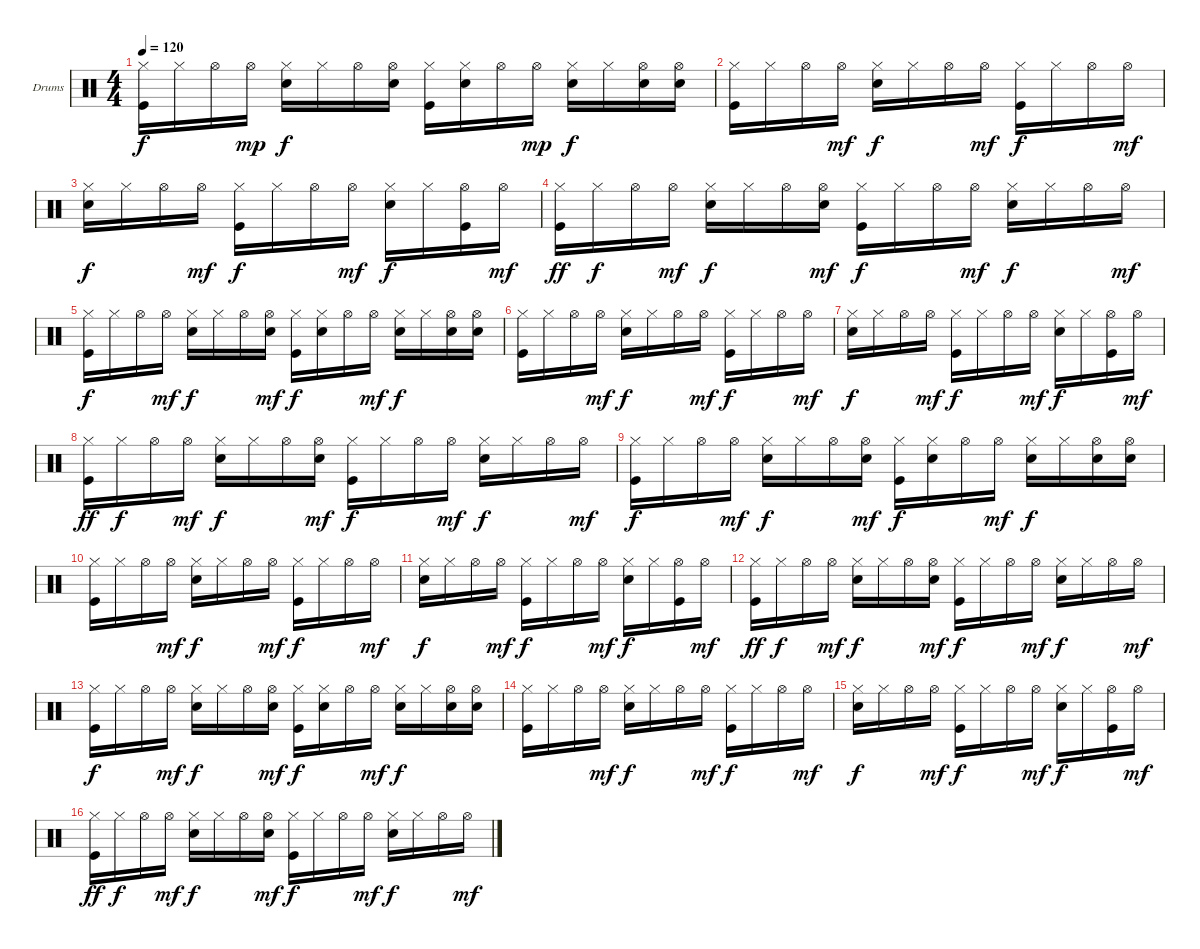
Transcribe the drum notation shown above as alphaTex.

\defaultSystemsLayout 4
\bracketExtendMode groupsimilarinstruments
\firstSystemTrackNameOrientation horizontal
\otherSystemsTrackNameOrientation horizontal
\track ("Г.Гурьянов-Ударные" "Drums") {instrument percussion}
\staff {score}
\articulation defaults
\ts (4 4)
\tempo 120
\clef neutral
\ks c
("Hi-Hat (closed)" "Kick (hit)").16{dy f} "Hi-Hat (closed)".16 "Hi-Hat (open)".16 "Hi-Hat (open)".16{dy mp} ("Hi-Hat (closed)" "Snare (hit) 2").16{dy f} "Hi-Hat (closed)".16 "Hi-Hat (open)".16 ("Snare (hit) 2" "Hi-Hat (open)").16 ("Kick (hit)" "Hi-Hat (closed)").16 ("Snare (hit) 2" "Hi-Hat (closed)").16 "Hi-Hat (open)".16 "Hi-Hat (open)".16{dy mp} ("Hi-Hat (closed)" "Snare (hit) 2").16{dy f} "Hi-Hat (closed)".16 ("Snare (hit) 2" "Hi-Hat (open)").16 ("Snare (hit) 2" "Hi-Hat (open)").16 |
("Hi-Hat (closed)" "Kick (hit)").16 "Hi-Hat (closed)".16 "Hi-Hat (open)".16 "Hi-Hat (open)".16{dy mf} ("Snare (hit) 2" "Hi-Hat (closed)").16{dy f} "Hi-Hat (closed)".16 "Hi-Hat (open)".16 "Hi-Hat (open)".16{dy mf} ("Kick (hit)" "Hi-Hat (closed)").16{dy f} "Hi-Hat (closed)".16 "Hi-Hat (open)".16 "Hi-Hat (open)".16{dy mf} |
("Snare (hit) 2" "Hi-Hat (closed)").16{dy f} "Hi-Hat (closed)".16 "Hi-Hat (open)".16 "Hi-Hat (open)".16{dy mf} ("Kick (hit)" "Hi-Hat (closed)").16{dy f} "Hi-Hat (closed)".16 "Hi-Hat (open)".16 "Hi-Hat (open)".16{dy mf} ("Snare (hit) 2" "Hi-Hat (closed)").16{dy f} "Hi-Hat (closed)".16 ("Kick (hit)" "Hi-Hat (open)").16 "Hi-Hat (open)".16{dy mf} |
("Kick (hit)" "Hi-Hat (closed)").16{dy ff} "Hi-Hat (closed)".16{dy f} "Hi-Hat (open)".16 "Hi-Hat (open)".16{dy mf} ("Snare (hit) 2" "Hi-Hat (closed)").16{dy f} "Hi-Hat (closed)".16 "Hi-Hat (open)".16 ("Hi-Hat (open)" "Snare (hit) 2").16{dy mf} ("Hi-Hat (closed)" "Kick (hit)").16{dy f} "Hi-Hat (closed)".16 "Hi-Hat (open)".16 "Hi-Hat (open)".16{dy mf} ("Snare (hit) 2" "Hi-Hat (closed)").16{dy f} "Hi-Hat (closed)".16 "Hi-Hat (open)".16 "Hi-Hat (open)".16{dy mf} |
("Kick (hit)" "Hi-Hat (closed)").16{dy f} "Hi-Hat (closed)".16 "Hi-Hat (open)".16 "Hi-Hat (open)".16{dy mf} ("Snare (hit) 2" "Hi-Hat (closed)").16{dy f} "Hi-Hat (closed)".16 "Hi-Hat (open)".16 ("Hi-Hat (open)" "Snare (hit) 2").16{dy mf} ("Hi-Hat (closed)" "Kick (hit)").16{dy f} ("Snare (hit) 2" "Hi-Hat (closed)").16 "Hi-Hat (open)".16 "Hi-Hat (open)".16{dy mf} ("Snare (hit) 2" "Hi-Hat (closed)").16{dy f} "Hi-Hat (closed)".16 ("Snare (hit) 2" "Hi-Hat (open)").16 ("Snare (hit) 2" "Hi-Hat (open)").16 |
("Hi-Hat (closed)" "Kick (hit)").16 "Hi-Hat (closed)".16 "Hi-Hat (open)".16 "Hi-Hat (open)".16{dy mf} ("Snare (hit) 2" "Hi-Hat (closed)").16{dy f} "Hi-Hat (closed)".16 "Hi-Hat (open)".16 "Hi-Hat (open)".16{dy mf} ("Kick (hit)" "Hi-Hat (closed)").16{dy f} "Hi-Hat (closed)".16 "Hi-Hat (open)".16 "Hi-Hat (open)".16{dy mf} |
("Snare (hit) 2" "Hi-Hat (closed)").16{dy f} "Hi-Hat (closed)".16 "Hi-Hat (open)".16 "Hi-Hat (open)".16{dy mf} ("Kick (hit)" "Hi-Hat (closed)").16{dy f} "Hi-Hat (closed)".16 "Hi-Hat (open)".16 "Hi-Hat (open)".16{dy mf} ("Snare (hit) 2" "Hi-Hat (closed)").16{dy f} "Hi-Hat (closed)".16 ("Kick (hit)" "Hi-Hat (open)").16 "Hi-Hat (open)".16{dy mf} |
("Kick (hit)" "Hi-Hat (closed)").16{dy ff} "Hi-Hat (closed)".16{dy f} "Hi-Hat (open)".16 "Hi-Hat (open)".16{dy mf} ("Snare (hit) 2" "Hi-Hat (closed)").16{dy f} "Hi-Hat (closed)".16 "Hi-Hat (open)".16 ("Hi-Hat (open)" "Snare (hit) 2").16{dy mf} ("Hi-Hat (closed)" "Kick (hit)").16{dy f} "Hi-Hat (closed)".16 "Hi-Hat (open)".16 "Hi-Hat (open)".16{dy mf} ("Snare (hit) 2" "Hi-Hat (closed)").16{dy f} "Hi-Hat (closed)".16 "Hi-Hat (open)".16 "Hi-Hat (open)".16{dy mf} |
("Kick (hit)" "Hi-Hat (closed)").16{dy f} "Hi-Hat (closed)".16 "Hi-Hat (open)".16 "Hi-Hat (open)".16{dy mf} ("Snare (hit) 2" "Hi-Hat (closed)").16{dy f} "Hi-Hat (closed)".16 "Hi-Hat (open)".16 ("Hi-Hat (open)" "Snare (hit) 2").16{dy mf} ("Hi-Hat (closed)" "Kick (hit)").16{dy f} ("Snare (hit) 2" "Hi-Hat (closed)").16 "Hi-Hat (open)".16 "Hi-Hat (open)".16{dy mf} ("Snare (hit) 2" "Hi-Hat (closed)").16{dy f} "Hi-Hat (closed)".16 ("Snare (hit) 2" "Hi-Hat (open)").16 ("Snare (hit) 2" "Hi-Hat (open)").16 |
("Hi-Hat (closed)" "Kick (hit)").16 "Hi-Hat (closed)".16 "Hi-Hat (open)".16 "Hi-Hat (open)".16{dy mf} ("Snare (hit) 2" "Hi-Hat (closed)").16{dy f} "Hi-Hat (closed)".16 "Hi-Hat (open)".16 "Hi-Hat (open)".16{dy mf} ("Kick (hit)" "Hi-Hat (closed)").16{dy f} "Hi-Hat (closed)".16 "Hi-Hat (open)".16 "Hi-Hat (open)".16{dy mf} |
("Snare (hit) 2" "Hi-Hat (closed)").16{dy f} "Hi-Hat (closed)".16 "Hi-Hat (open)".16 "Hi-Hat (open)".16{dy mf} ("Kick (hit)" "Hi-Hat (closed)").16{dy f} "Hi-Hat (closed)".16 "Hi-Hat (open)".16 "Hi-Hat (open)".16{dy mf} ("Snare (hit) 2" "Hi-Hat (closed)").16{dy f} "Hi-Hat (closed)".16 ("Kick (hit)" "Hi-Hat (open)").16 "Hi-Hat (open)".16{dy mf} |
("Kick (hit)" "Hi-Hat (closed)").16{dy ff} "Hi-Hat (closed)".16{dy f} "Hi-Hat (open)".16 "Hi-Hat (open)".16{dy mf} ("Snare (hit) 2" "Hi-Hat (closed)").16{dy f} "Hi-Hat (closed)".16 "Hi-Hat (open)".16 ("Hi-Hat (open)" "Snare (hit) 2").16{dy mf} ("Hi-Hat (closed)" "Kick (hit)").16{dy f} "Hi-Hat (closed)".16 "Hi-Hat (open)".16 "Hi-Hat (open)".16{dy mf} ("Snare (hit) 2" "Hi-Hat (closed)").16{dy f} "Hi-Hat (closed)".16 "Hi-Hat (open)".16 "Hi-Hat (open)".16{dy mf} |
("Kick (hit)" "Hi-Hat (closed)").16{dy f} "Hi-Hat (closed)".16 "Hi-Hat (open)".16 "Hi-Hat (open)".16{dy mf} ("Snare (hit) 2" "Hi-Hat (closed)").16{dy f} "Hi-Hat (closed)".16 "Hi-Hat (open)".16 ("Hi-Hat (open)" "Snare (hit) 2").16{dy mf} ("Hi-Hat (closed)" "Kick (hit)").16{dy f} ("Snare (hit) 2" "Hi-Hat (closed)").16 "Hi-Hat (open)".16 "Hi-Hat (open)".16{dy mf} ("Snare (hit) 2" "Hi-Hat (closed)").16{dy f} "Hi-Hat (closed)".16 ("Snare (hit) 2" "Hi-Hat (open)").16 ("Snare (hit) 2" "Hi-Hat (open)").16 |
("Hi-Hat (closed)" "Kick (hit)").16 "Hi-Hat (closed)".16 "Hi-Hat (open)".16 "Hi-Hat (open)".16{dy mf} ("Snare (hit) 2" "Hi-Hat (closed)").16{dy f} "Hi-Hat (closed)".16 "Hi-Hat (open)".16 "Hi-Hat (open)".16{dy mf} ("Kick (hit)" "Hi-Hat (closed)").16{dy f} "Hi-Hat (closed)".16 "Hi-Hat (open)".16 "Hi-Hat (open)".16{dy mf} |
("Snare (hit) 2" "Hi-Hat (closed)").16{dy f} "Hi-Hat (closed)".16 "Hi-Hat (open)".16 "Hi-Hat (open)".16{dy mf} ("Kick (hit)" "Hi-Hat (closed)").16{dy f} "Hi-Hat (closed)".16 "Hi-Hat (open)".16 "Hi-Hat (open)".16{dy mf} ("Snare (hit) 2" "Hi-Hat (closed)").16{dy f} "Hi-Hat (closed)".16 ("Kick (hit)" "Hi-Hat (open)").16 "Hi-Hat (open)".16{dy mf} |
("Kick (hit)" "Hi-Hat (closed)").16{dy ff} "Hi-Hat (closed)".16{dy f} "Hi-Hat (open)".16 "Hi-Hat (open)".16{dy mf} ("Snare (hit) 2" "Hi-Hat (closed)").16{dy f} "Hi-Hat (closed)".16 "Hi-Hat (open)".16 ("Hi-Hat (open)" "Snare (hit) 2").16{dy mf} ("Hi-Hat (closed)" "Kick (hit)").16{dy f} "Hi-Hat (closed)".16 "Hi-Hat (open)".16 "Hi-Hat (open)".16{dy mf} ("Snare (hit) 2" "Hi-Hat (closed)").16{dy f} "Hi-Hat (closed)".16 "Hi-Hat (open)".16 "Hi-Hat (open)".16{dy mf}
